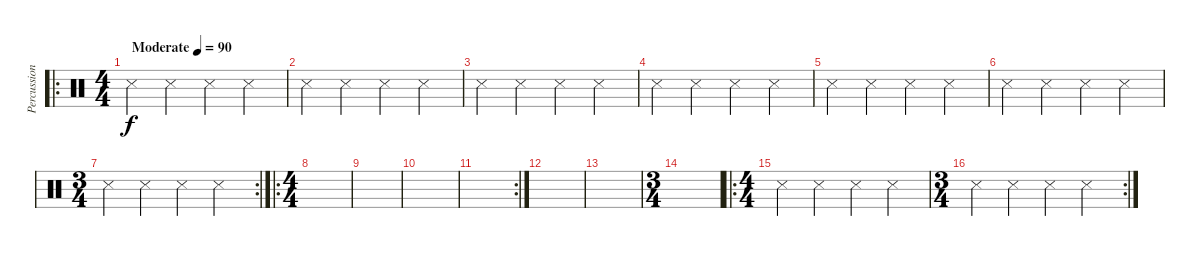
\track ("Percussions" "Percussion") {instrument percussion}
\staff {score}
\articulation defaults
\ro
\ts (4 4)
\tempo (90 "Moderate")
\clef neutral
\ks c "Metronome (hit)".4{dy f} "Metronome (hit)".4 "Metronome (hit)".4 "Metronome (hit)".4
|
"Metronome (hit)".4 "Metronome (hit)".4 "Metronome (hit)".4 "Metronome (hit)".4 |
"Metronome (hit)".4 "Metronome (hit)".4 "Metronome (hit)".4 "Metronome (hit)".4 |
"Metronome (hit)".4 "Metronome (hit)".4 "Metronome (hit)".4 "Metronome (hit)".4 |
"Metronome (hit)".4 "Metronome (hit)".4 "Metronome (hit)".4 "Metronome (hit)".4 |
"Metronome (hit)".4 "Metronome (hit)".4 "Metronome (hit)".4 "Metronome (hit)".4 |
\rc 2
\ts (3 4)
"Metronome (hit)".4 "Metronome (hit)".4 "Metronome (hit)".4 "Metronome (hit)".4 |
\ro
\ts (4 4)
|
|
|
\rc 2
|
|
|
\ts (3 4)
|
\ro
\ts (4 4)
"Metronome (hit)".4 "Metronome (hit)".4 "Metronome (hit)".4 "Metronome (hit)".4 |
\rc 2
\ts (3 4)
"Metronome (hit)".4 "Metronome (hit)".4 "Metronome (hit)".4 "Metronome (hit)".4
